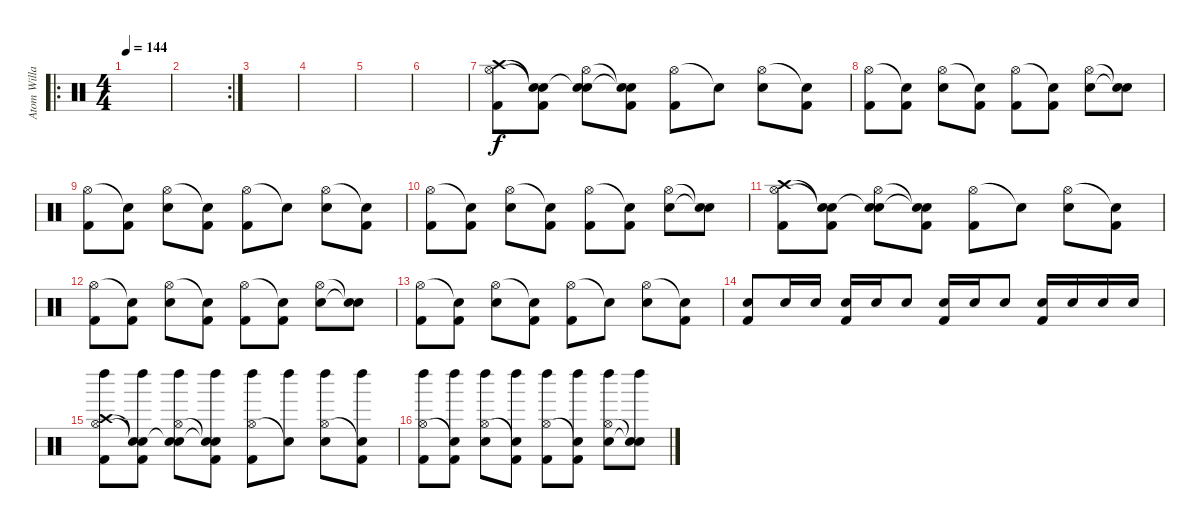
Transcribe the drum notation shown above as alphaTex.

\track ("Atom Willard (Drums)" "Atom Willa") {instrument percussion}
\staff {score}
\articulation defaults
\ro
\ts (4 4)
\tempo 144
\clef neutral
\ks c
|
\rc 2
|
|
|
|
|
("Crash high (hit)" "Hi-Hat (open)" "Kick (hit) 2").8 ("Snare (hit)"{t} "Snare (hit)"{t} "Kick (hit) 2").8 ("Snare (hit)"{t} "Hi-Hat (open)" "Electric Snare (hit)").8 ("Snare (hit)"{t} "Snare (hit)"{t} "Kick (hit) 2").8 ("Hi-Hat (open)" "Kick (hit) 2").8 "Snare (hit)"{t}.8 ("Hi-Hat (open)" "Electric Snare (hit)").8 ("Snare (hit)"{t} "Kick (hit) 2").8 |
("Hi-Hat (open)" "Kick (hit) 2").8 ("Snare (hit)"{t} "Kick (hit) 2").8 ("Hi-Hat (open)" "Electric Snare (hit)").8 ("Snare (hit)"{t} "Kick (hit) 2").8 ("Hi-Hat (open)" "Kick (hit) 2").8 ("Snare (hit)"{t} "Kick (hit) 2").8 ("Hi-Hat (open)" "Electric Snare (hit)").8 ("Snare (hit)"{t} "Snare (hit)"{t}).8 |
("Hi-Hat (open)" "Kick (hit) 2").8 ("Snare (hit)"{t} "Kick (hit) 2").8 ("Hi-Hat (open)" "Electric Snare (hit)").8 ("Snare (hit)"{t} "Kick (hit) 2").8 ("Hi-Hat (open)" "Kick (hit) 2").8 "Snare (hit)"{t}.8 ("Hi-Hat (open)" "Electric Snare (hit)").8 ("Snare (hit)"{t} "Kick (hit) 2").8 |
("Hi-Hat (open)" "Kick (hit) 2").8 ("Snare (hit)"{t} "Kick (hit) 2").8 ("Hi-Hat (open)" "Electric Snare (hit)").8 ("Snare (hit)"{t} "Kick (hit) 2").8 ("Hi-Hat (open)" "Kick (hit) 2").8 ("Snare (hit)"{t} "Kick (hit) 2").8 ("Hi-Hat (open)" "Electric Snare (hit)").8 ("Snare (hit)"{t} "Snare (hit)"{t}).8 |
("Crash high (hit)" "Hi-Hat (open)" "Kick (hit) 2").8 ("Snare (hit)"{t} "Snare (hit)"{t} "Kick (hit) 2").8 ("Snare (hit)"{t} "Hi-Hat (open)" "Electric Snare (hit)").8 ("Snare (hit)"{t} "Snare (hit)"{t} "Kick (hit) 2").8 ("Hi-Hat (open)" "Kick (hit) 2").8 "Snare (hit)"{t}.8 ("Hi-Hat (open)" "Electric Snare (hit)").8 ("Snare (hit)"{t} "Kick (hit) 2").8 |
("Hi-Hat (open)" "Kick (hit) 2").8 ("Snare (hit)"{t} "Kick (hit) 2").8 ("Hi-Hat (open)" "Electric Snare (hit)").8 ("Snare (hit)"{t} "Kick (hit) 2").8 ("Hi-Hat (open)" "Kick (hit) 2").8 ("Snare (hit)"{t} "Kick (hit) 2").8 ("Hi-Hat (open)" "Electric Snare (hit)").8 ("Snare (hit)"{t} "Snare (hit)"{t}).8 |
("Hi-Hat (open)" "Kick (hit) 2").8 ("Snare (hit)"{t} "Kick (hit) 2").8 ("Hi-Hat (open)" "Electric Snare (hit)").8 ("Snare (hit)"{t} "Kick (hit) 2").8 ("Hi-Hat (open)" "Kick (hit) 2").8 "Snare (hit)"{t}.8 ("Hi-Hat (open)" "Electric Snare (hit)").8 ("Snare (hit)"{t} "Kick (hit) 2").8 |
("Electric Snare (hit)" "Kick (hit) 2").8 "Electric Snare (hit)".16 "Electric Snare (hit)".16 ("Electric Snare (hit)" "Kick (hit) 2").16 "Electric Snare (hit)".16 "Electric Snare (hit)".8 ("Electric Snare (hit)" "Kick (hit) 2").16 "Electric Snare (hit)".16 "Electric Snare (hit)".8 ("Electric Snare (hit)" "Kick (hit) 2").16 "Electric Snare (hit)".16 "Electric Snare (hit)".16 "Electric Snare (hit)".16 |
("Crash high (hit)" "Left Maraca (hit)" "Hi-Hat (open)" "Kick (hit) 2").8 ("Snare (hit)"{t} "Left Maraca (hit)" "Snare (hit)"{t} "Kick (hit) 2").8 ("Snare (hit)"{t} "Left Maraca (hit)" "Hi-Hat (open)" "Electric Snare (hit)").8 ("Snare (hit)"{t} "Left Maraca (hit)" "Snare (hit)"{t} "Kick (hit) 2").8 ("Left Maraca (hit)" "Hi-Hat (open)" "Kick (hit) 2").8 ("Left Maraca (hit)" "Snare (hit)"{t}).8 ("Left Maraca (hit)" "Hi-Hat (open)" "Electric Snare (hit)").8 ("Left Maraca (hit)" "Snare (hit)"{t} "Kick (hit) 2").8 |
("Left Maraca (hit)" "Hi-Hat (open)" "Kick (hit) 2").8 ("Left Maraca (hit)" "Snare (hit)"{t} "Kick (hit) 2").8 ("Left Maraca (hit)" "Hi-Hat (open)" "Electric Snare (hit)").8 ("Left Maraca (hit)" "Snare (hit)"{t} "Kick (hit) 2").8 ("Left Maraca (hit)" "Hi-Hat (open)" "Kick (hit) 2").8 ("Left Maraca (hit)" "Snare (hit)"{t} "Kick (hit) 2").8 ("Left Maraca (hit)" "Hi-Hat (open)" "Electric Snare (hit)").8 ("Left Maraca (hit)" "Snare (hit)"{t} "Snare (hit)"{t}).8
